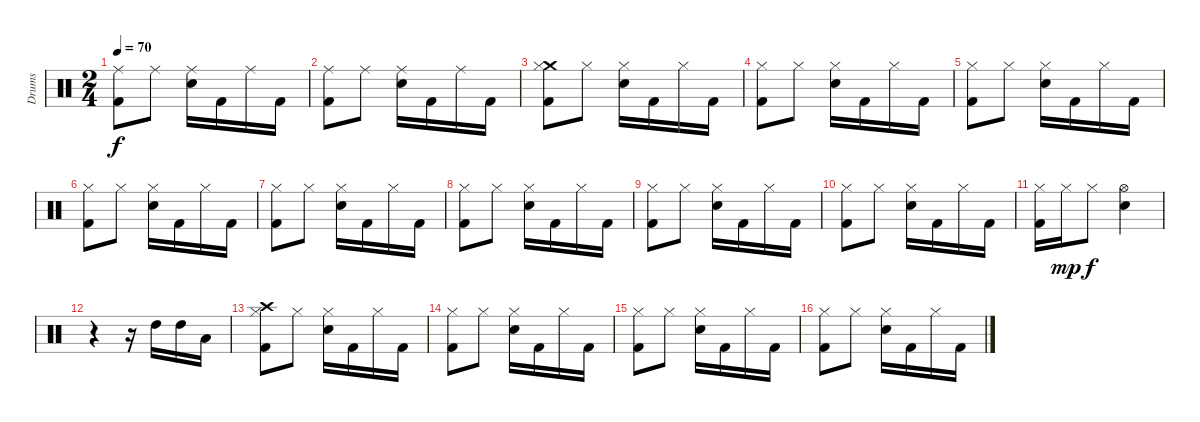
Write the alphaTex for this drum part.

\track ("Drums" "Drums") {instrument percussion}
\staff {score}
\articulation defaults
\ts (2 4)
\tempo 70
\clef neutral
\ks c
("Ride (middle)" "Kick (hit) 2").8{dy f} "Ride (middle)".8 ("Ride (middle)" "Electric Snare (hit)").16 "Kick (hit) 2".16 "Ride (middle)".16 "Kick (hit) 2".16 |
("Ride (middle)" "Kick (hit) 2").8 "Ride (middle)".8 ("Ride (middle)" "Electric Snare (hit)").16 "Kick (hit) 2".16 "Ride (middle)".16 "Kick (hit) 2".16 |
("Crash medium (hit)" "Hi-Hat (closed)" "Kick (hit) 2").8 "Hi-Hat (closed)".8 ("Hi-Hat (closed)" "Electric Snare (hit)").16 "Kick (hit) 2".16 "Hi-Hat (closed)".16 "Kick (hit) 2".16 |
("Hi-Hat (closed)" "Kick (hit) 2").8 "Hi-Hat (closed)".8 ("Hi-Hat (closed)" "Electric Snare (hit)").16 "Kick (hit) 2".16 "Hi-Hat (closed)".16 "Kick (hit) 2".16 |
("Hi-Hat (closed)" "Kick (hit) 2").8 "Hi-Hat (closed)".8 ("Hi-Hat (closed)" "Electric Snare (hit)").16 "Kick (hit) 2".16 "Hi-Hat (closed)".16 "Kick (hit) 2".16 |
("Hi-Hat (closed)" "Kick (hit) 2").8 "Hi-Hat (closed)".8 ("Hi-Hat (closed)" "Electric Snare (hit)").16 "Kick (hit) 2".16 "Hi-Hat (closed)".16 "Kick (hit) 2".16 |
("Hi-Hat (closed)" "Kick (hit) 2").8 "Hi-Hat (closed)".8 ("Hi-Hat (closed)" "Electric Snare (hit)").16 "Kick (hit) 2".16 "Hi-Hat (closed)".16 "Kick (hit) 2".16 |
("Hi-Hat (closed)" "Kick (hit) 2").8 "Hi-Hat (closed)".8 ("Hi-Hat (closed)" "Electric Snare (hit)").16 "Kick (hit) 2".16 "Hi-Hat (closed)".16 "Kick (hit) 2".16 |
("Hi-Hat (closed)" "Kick (hit) 2").8 "Hi-Hat (closed)".8 ("Hi-Hat (closed)" "Electric Snare (hit)").16 "Kick (hit) 2".16 "Hi-Hat (closed)".16 "Kick (hit) 2".16 |
("Hi-Hat (closed)" "Kick (hit) 2").8 "Hi-Hat (closed)".8 ("Hi-Hat (closed)" "Electric Snare (hit)").16 "Kick (hit) 2".16 "Hi-Hat (closed)".16 "Kick (hit) 2".16 |
("Hi-Hat (closed)" "Kick (hit) 2").16 "Hi-Hat (closed)".16{dy mp} "Hi-Hat (closed)".8{dy f} ("Hi-Hat (open)" "Electric Snare (hit)").4 |
r.4 r.16 "High Tom (hit)".16 "High Tom (hit)".16 "Low Tom (hit)".16 |
("Crash high (hit)" "Hi-Hat (closed)" "Kick (hit) 2").8 "Hi-Hat (closed)".8 ("Hi-Hat (closed)" "Electric Snare (hit)").16 "Kick (hit) 2".16 "Hi-Hat (closed)".16 "Kick (hit) 2".16 |
("Hi-Hat (closed)" "Kick (hit) 2").8 "Hi-Hat (closed)".8 ("Hi-Hat (closed)" "Electric Snare (hit)").16 "Kick (hit) 2".16 "Hi-Hat (closed)".16 "Kick (hit) 2".16 |
("Hi-Hat (closed)" "Kick (hit) 2").8 "Hi-Hat (closed)".8 ("Hi-Hat (closed)" "Electric Snare (hit)").16 "Kick (hit) 2".16 "Hi-Hat (closed)".16 "Kick (hit) 2".16 |
("Hi-Hat (closed)" "Kick (hit) 2").8 "Hi-Hat (closed)".8 ("Hi-Hat (closed)" "Electric Snare (hit)").16 "Kick (hit) 2".16 "Hi-Hat (closed)".16 "Kick (hit) 2".16
